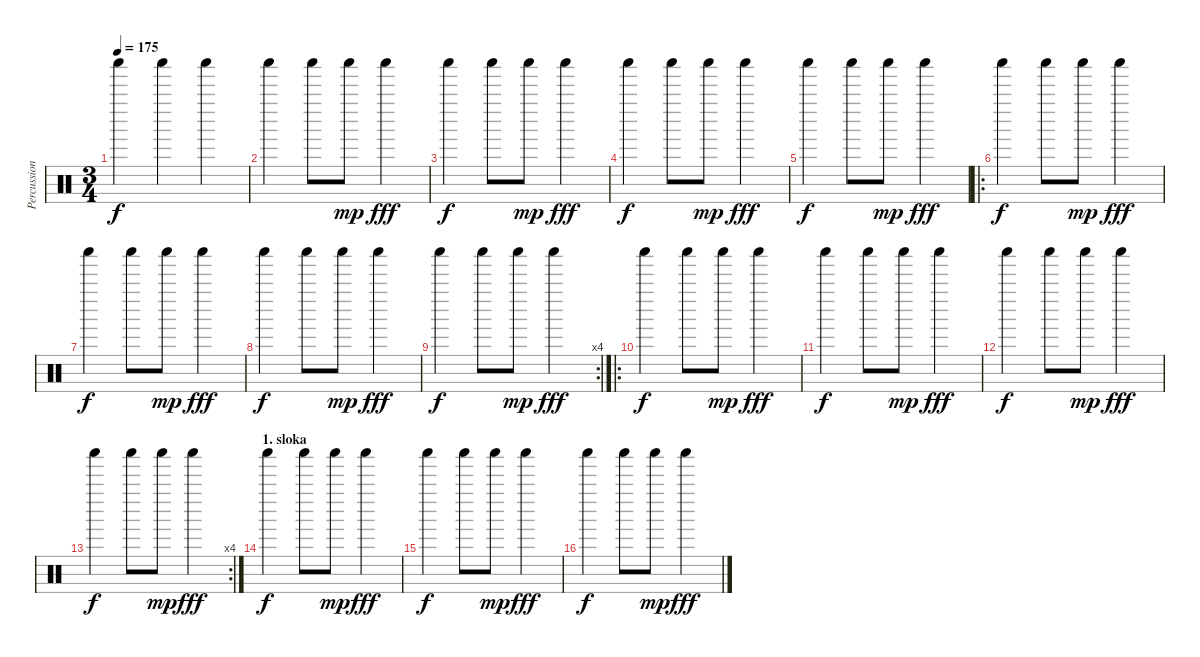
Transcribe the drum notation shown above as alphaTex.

\track ("Percussion" "Percussion") {instrument percussion}
\staff {score}
\articulation defaults
\ts (3 4)
\tempo 175
\clef neutral
\ks c "Shaker (hit)".4{dy f} "Shaker (hit)".4 "Shaker (hit)".4
|
"Shaker (hit)".4 "Shaker (hit)".8 "Shaker (hit)".8{dy mp} "Shaker (hit)".4{dy fff} |
"Shaker (hit)".4{dy f} "Shaker (hit)".8 "Shaker (hit)".8{dy mp} "Shaker (hit)".4{dy fff} |
"Shaker (hit)".4{dy f} "Shaker (hit)".8 "Shaker (hit)".8{dy mp} "Shaker (hit)".4{dy fff} |
"Shaker (hit)".4{dy f} "Shaker (hit)".8 "Shaker (hit)".8{dy mp} "Shaker (hit)".4{dy fff} |
\ro "Shaker (hit)".4{dy f} "Shaker (hit)".8 "Shaker (hit)".8{dy mp} "Shaker (hit)".4{dy fff}
|
"Shaker (hit)".4{dy f} "Shaker (hit)".8 "Shaker (hit)".8{dy mp} "Shaker (hit)".4{dy fff} |
"Shaker (hit)".4{dy f} "Shaker (hit)".8 "Shaker (hit)".8{dy mp} "Shaker (hit)".4{dy fff} |
\rc 4 "Shaker (hit)".4{dy f} "Shaker (hit)".8 "Shaker (hit)".8{dy mp} "Shaker (hit)".4{dy fff}
|
\ro "Shaker (hit)".4{dy f} "Shaker (hit)".8 "Shaker (hit)".8{dy mp} "Shaker (hit)".4{dy fff}
|
"Shaker (hit)".4{dy f} "Shaker (hit)".8 "Shaker (hit)".8{dy mp} "Shaker (hit)".4{dy fff} |
"Shaker (hit)".4{dy f} "Shaker (hit)".8 "Shaker (hit)".8{dy mp} "Shaker (hit)".4{dy fff} |
\rc 4 "Shaker (hit)".4{dy f} "Shaker (hit)".8 "Shaker (hit)".8{dy mp} "Shaker (hit)".4{dy fff}
|
\section ("" "1. sloka")
"Shaker (hit)".4{dy f} "Shaker (hit)".8 "Shaker (hit)".8{dy mp} "Shaker (hit)".4{dy fff} |
"Shaker (hit)".4{dy f} "Shaker (hit)".8 "Shaker (hit)".8{dy mp} "Shaker (hit)".4{dy fff} |
"Shaker (hit)".4{dy f} "Shaker (hit)".8 "Shaker (hit)".8{dy mp} "Shaker (hit)".4{dy fff}
